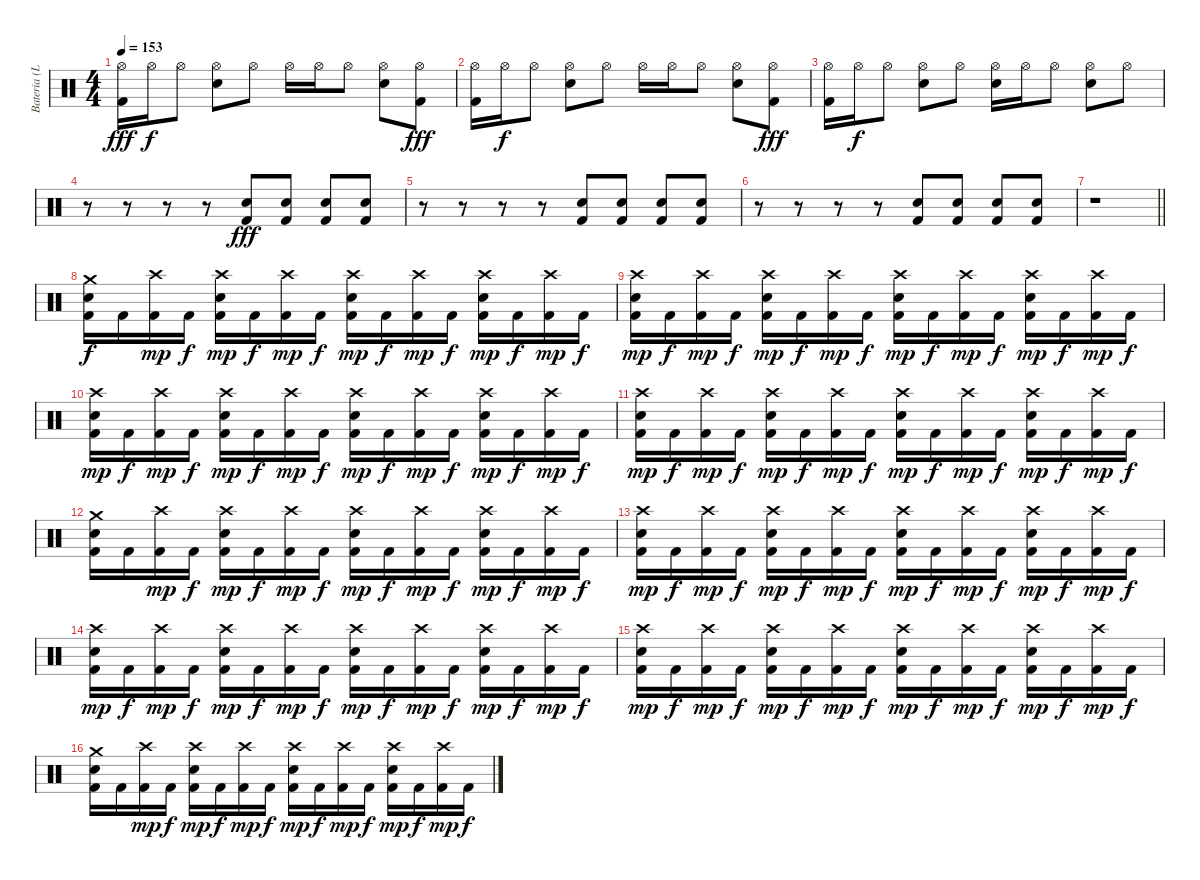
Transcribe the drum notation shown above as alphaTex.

\track ("Bateria (Lars)" "Bateria (L") {instrument percussion}
\staff {score}
\articulation defaults
\ts (4 4)
\tempo 153
\clef neutral
\ks c
("Hi-Hat (open)" "Kick (hit) 2").16{dy fff} "Hi-Hat (open)".16{dy f} "Hi-Hat (open)".8 ("Hi-Hat (open)" "Electric Snare (hit)").8 "Hi-Hat (open)".8 "Hi-Hat (open)".16 "Hi-Hat (open)".16 "Hi-Hat (open)".8 ("Hi-Hat (open)" "Electric Snare (hit)").8 ("Hi-Hat (open)" "Kick (hit) 2").8{dy fff} |
("Hi-Hat (open)" "Kick (hit) 2").16 "Hi-Hat (open)".16{dy f} "Hi-Hat (open)".8 ("Hi-Hat (open)" "Electric Snare (hit)").8 "Hi-Hat (open)".8 "Hi-Hat (open)".16 "Hi-Hat (open)".16 "Hi-Hat (open)".8 ("Hi-Hat (open)" "Electric Snare (hit)").8 ("Hi-Hat (open)" "Kick (hit) 2").8{dy fff} |
("Hi-Hat (open)" "Kick (hit) 2").16 "Hi-Hat (open)".16{dy f} "Hi-Hat (open)".8 ("Hi-Hat (open)" "Electric Snare (hit)").8 "Hi-Hat (open)".8 ("Hi-Hat (open)" "Electric Snare (hit)").16 "Hi-Hat (open)".16 "Hi-Hat (open)".8 ("Hi-Hat (open)" "Electric Snare (hit)").8 "Hi-Hat (open)".8 |
r.8 r.8 r.8 r.8 ("Electric Snare (hit)" "Kick (hit) 2").8{dy fff} ("Electric Snare (hit)" "Kick (hit) 2").8 ("Electric Snare (hit)" "Kick (hit) 2").8 ("Electric Snare (hit)" "Kick (hit) 2").8 |
r.8 r.8 r.8 r.8 ("Electric Snare (hit)" "Kick (hit) 2").8 ("Electric Snare (hit)" "Kick (hit) 2").8 ("Electric Snare (hit)" "Kick (hit) 2").8 ("Electric Snare (hit)" "Kick (hit) 2").8 |
r.8 r.8 r.8 r.8 ("Electric Snare (hit)" "Kick (hit) 2").8 ("Electric Snare (hit)" "Kick (hit) 2").8 ("Electric Snare (hit)" "Kick (hit) 2").8 ("Electric Snare (hit)" "Kick (hit) 2").8 |
\barLineRight lightlight
r.1 |
("Crash medium (hit)" "Electric Snare (hit)" "Kick (hit) 2").16{dy f} "Kick (hit) 2".16 ("Crash high (hit)" "Kick (hit) 2").16{dy mp} "Kick (hit) 2".16{dy f} ("Crash high (hit)" "Electric Snare (hit)" "Kick (hit) 2").16{dy mp} "Kick (hit) 2".16{dy f} ("Crash high (hit)" "Kick (hit) 2").16{dy mp} "Kick (hit) 2".16{dy f} ("Crash high (hit)" "Electric Snare (hit)" "Kick (hit) 2").16{dy mp} "Kick (hit) 2".16{dy f} ("Crash high (hit)" "Kick (hit) 2").16{dy mp} "Kick (hit) 2".16{dy f} ("Crash high (hit)" "Electric Snare (hit)" "Kick (hit) 2").16{dy mp} "Kick (hit) 2".16{dy f} ("Crash high (hit)" "Kick (hit) 2").16{dy mp} "Kick (hit) 2".16{dy f} |
("Crash high (hit)" "Electric Snare (hit)" "Kick (hit) 2").16{dy mp} "Kick (hit) 2".16{dy f} ("Crash high (hit)" "Kick (hit) 2").16{dy mp} "Kick (hit) 2".16{dy f} ("Crash high (hit)" "Electric Snare (hit)" "Kick (hit) 2").16{dy mp} "Kick (hit) 2".16{dy f} ("Crash high (hit)" "Kick (hit) 2").16{dy mp} "Kick (hit) 2".16{dy f} ("Crash high (hit)" "Electric Snare (hit)" "Kick (hit) 2").16{dy mp} "Kick (hit) 2".16{dy f} ("Crash high (hit)" "Kick (hit) 2").16{dy mp} "Kick (hit) 2".16{dy f} ("Crash high (hit)" "Electric Snare (hit)" "Kick (hit) 2").16{dy mp} "Kick (hit) 2".16{dy f} ("Crash high (hit)" "Kick (hit) 2").16{dy mp} "Kick (hit) 2".16{dy f} |
("Crash high (hit)" "Electric Snare (hit)" "Kick (hit) 2").16{dy mp} "Kick (hit) 2".16{dy f} ("Crash high (hit)" "Kick (hit) 2").16{dy mp} "Kick (hit) 2".16{dy f} ("Crash high (hit)" "Electric Snare (hit)" "Kick (hit) 2").16{dy mp} "Kick (hit) 2".16{dy f} ("Crash high (hit)" "Kick (hit) 2").16{dy mp} "Kick (hit) 2".16{dy f} ("Crash high (hit)" "Electric Snare (hit)" "Kick (hit) 2").16{dy mp} "Kick (hit) 2".16{dy f} ("Crash high (hit)" "Kick (hit) 2").16{dy mp} "Kick (hit) 2".16{dy f} ("Crash high (hit)" "Electric Snare (hit)" "Kick (hit) 2").16{dy mp} "Kick (hit) 2".16{dy f} ("Crash high (hit)" "Kick (hit) 2").16{dy mp} "Kick (hit) 2".16{dy f} |
("Crash high (hit)" "Electric Snare (hit)" "Kick (hit) 2").16{dy mp} "Kick (hit) 2".16{dy f} ("Crash high (hit)" "Kick (hit) 2").16{dy mp} "Kick (hit) 2".16{dy f} ("Crash high (hit)" "Electric Snare (hit)" "Kick (hit) 2").16{dy mp} "Kick (hit) 2".16{dy f} ("Crash high (hit)" "Kick (hit) 2").16{dy mp} "Kick (hit) 2".16{dy f} ("Crash high (hit)" "Electric Snare (hit)" "Kick (hit) 2").16{dy mp} "Kick (hit) 2".16{dy f} ("Crash high (hit)" "Kick (hit) 2").16{dy mp} "Kick (hit) 2".16{dy f} ("Crash high (hit)" "Electric Snare (hit)" "Kick (hit) 2").16{dy mp} "Kick (hit) 2".16{dy f} ("Crash high (hit)" "Kick (hit) 2").16{dy mp} "Kick (hit) 2".16{dy f} |
("Crash medium (hit)" "Electric Snare (hit)" "Kick (hit) 2").16 "Kick (hit) 2".16 ("Crash high (hit)" "Kick (hit) 2").16{dy mp} "Kick (hit) 2".16{dy f} ("Crash high (hit)" "Electric Snare (hit)" "Kick (hit) 2").16{dy mp} "Kick (hit) 2".16{dy f} ("Crash high (hit)" "Kick (hit) 2").16{dy mp} "Kick (hit) 2".16{dy f} ("Crash high (hit)" "Electric Snare (hit)" "Kick (hit) 2").16{dy mp} "Kick (hit) 2".16{dy f} ("Crash high (hit)" "Kick (hit) 2").16{dy mp} "Kick (hit) 2".16{dy f} ("Crash high (hit)" "Electric Snare (hit)" "Kick (hit) 2").16{dy mp} "Kick (hit) 2".16{dy f} ("Crash high (hit)" "Kick (hit) 2").16{dy mp} "Kick (hit) 2".16{dy f} |
("Crash high (hit)" "Electric Snare (hit)" "Kick (hit) 2").16{dy mp} "Kick (hit) 2".16{dy f} ("Crash high (hit)" "Kick (hit) 2").16{dy mp} "Kick (hit) 2".16{dy f} ("Crash high (hit)" "Electric Snare (hit)" "Kick (hit) 2").16{dy mp} "Kick (hit) 2".16{dy f} ("Crash high (hit)" "Kick (hit) 2").16{dy mp} "Kick (hit) 2".16{dy f} ("Crash high (hit)" "Electric Snare (hit)" "Kick (hit) 2").16{dy mp} "Kick (hit) 2".16{dy f} ("Crash high (hit)" "Kick (hit) 2").16{dy mp} "Kick (hit) 2".16{dy f} ("Crash high (hit)" "Electric Snare (hit)" "Kick (hit) 2").16{dy mp} "Kick (hit) 2".16{dy f} ("Crash high (hit)" "Kick (hit) 2").16{dy mp} "Kick (hit) 2".16{dy f} |
("Crash high (hit)" "Electric Snare (hit)" "Kick (hit) 2").16{dy mp} "Kick (hit) 2".16{dy f} ("Crash high (hit)" "Kick (hit) 2").16{dy mp} "Kick (hit) 2".16{dy f} ("Crash high (hit)" "Electric Snare (hit)" "Kick (hit) 2").16{dy mp} "Kick (hit) 2".16{dy f} ("Crash high (hit)" "Kick (hit) 2").16{dy mp} "Kick (hit) 2".16{dy f} ("Crash high (hit)" "Electric Snare (hit)" "Kick (hit) 2").16{dy mp} "Kick (hit) 2".16{dy f} ("Crash high (hit)" "Kick (hit) 2").16{dy mp} "Kick (hit) 2".16{dy f} ("Crash high (hit)" "Electric Snare (hit)" "Kick (hit) 2").16{dy mp} "Kick (hit) 2".16{dy f} ("Crash high (hit)" "Kick (hit) 2").16{dy mp} "Kick (hit) 2".16{dy f} |
("Crash high (hit)" "Electric Snare (hit)" "Kick (hit) 2").16{dy mp} "Kick (hit) 2".16{dy f} ("Crash high (hit)" "Kick (hit) 2").16{dy mp} "Kick (hit) 2".16{dy f} ("Crash high (hit)" "Electric Snare (hit)" "Kick (hit) 2").16{dy mp} "Kick (hit) 2".16{dy f} ("Crash high (hit)" "Kick (hit) 2").16{dy mp} "Kick (hit) 2".16{dy f} ("Crash high (hit)" "Electric Snare (hit)" "Kick (hit) 2").16{dy mp} "Kick (hit) 2".16{dy f} ("Crash high (hit)" "Kick (hit) 2").16{dy mp} "Kick (hit) 2".16{dy f} ("Crash high (hit)" "Electric Snare (hit)" "Kick (hit) 2").16{dy mp} "Kick (hit) 2".16{dy f} ("Crash high (hit)" "Kick (hit) 2").16{dy mp} "Kick (hit) 2".16{dy f} |
("Crash medium (hit)" "Electric Snare (hit)" "Kick (hit) 2").16 "Kick (hit) 2".16 ("Crash high (hit)" "Kick (hit) 2").16{dy mp} "Kick (hit) 2".16{dy f} ("Crash high (hit)" "Electric Snare (hit)" "Kick (hit) 2").16{dy mp} "Kick (hit) 2".16{dy f} ("Crash high (hit)" "Kick (hit) 2").16{dy mp} "Kick (hit) 2".16{dy f} ("Crash high (hit)" "Electric Snare (hit)" "Kick (hit) 2").16{dy mp} "Kick (hit) 2".16{dy f} ("Crash high (hit)" "Kick (hit) 2").16{dy mp} "Kick (hit) 2".16{dy f} ("Crash high (hit)" "Electric Snare (hit)" "Kick (hit) 2").16{dy mp} "Kick (hit) 2".16{dy f} ("Crash high (hit)" "Kick (hit) 2").16{dy mp} "Kick (hit) 2".16{dy f}
